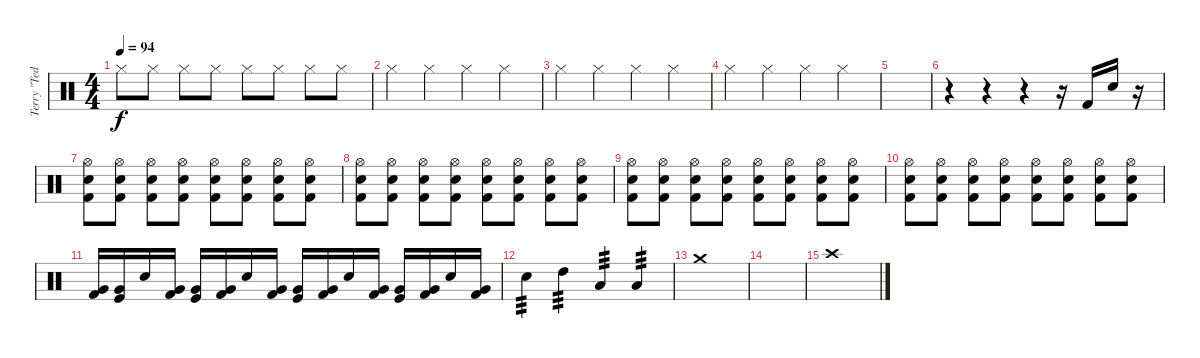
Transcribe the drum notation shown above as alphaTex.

\track ("Terry \"Ted\" Bozzio" "Terry \"Ted") {instrument percussion}
\staff {score}
\articulation defaults
\ts (4 4)
\tempo 94
\clef neutral
\ks c "Hi-Hat (closed)".8{dy f} "Hi-Hat (closed)".8 "Hi-Hat (closed)".8 "Hi-Hat (closed)".8 "Hi-Hat (closed)".8 "Hi-Hat (closed)".8 "Hi-Hat (closed)".8 "Hi-Hat (closed)".8
|
"Hi-Hat (closed)".4 "Hi-Hat (closed)".4 "Hi-Hat (closed)".4 "Hi-Hat (closed)".4 |
"Hi-Hat (closed)".4 "Hi-Hat (closed)".4 "Hi-Hat (closed)".4 "Hi-Hat (closed)".4 |
"Hi-Hat (closed)".4 "Hi-Hat (closed)".4 "Hi-Hat (closed)".4 "Hi-Hat (closed)".4 |
|
r.4 r.4 r.4 r.16 "Kick (hit) 2".16 "Electric Snare (hit)".16 r.16 |
("Hi-Hat (open)" "Electric Snare (hit)" "Kick (hit) 2").8 ("Hi-Hat (open)" "Electric Snare (hit)" "Kick (hit) 2").8 ("Hi-Hat (open)" "Electric Snare (hit)" "Kick (hit) 2").8 ("Hi-Hat (open)" "Electric Snare (hit)" "Kick (hit) 2").8 ("Hi-Hat (open)" "Electric Snare (hit)" "Kick (hit) 2").8 ("Hi-Hat (open)" "Electric Snare (hit)" "Kick (hit) 2").8 ("Hi-Hat (open)" "Electric Snare (hit)" "Kick (hit) 2").8 ("Hi-Hat (open)" "Electric Snare (hit)" "Kick (hit) 2").8 |
("Hi-Hat (open)" "Electric Snare (hit)" "Kick (hit) 2").8 ("Hi-Hat (open)" "Electric Snare (hit)" "Kick (hit) 2").8 ("Hi-Hat (open)" "Electric Snare (hit)" "Kick (hit) 2").8 ("Hi-Hat (open)" "Electric Snare (hit)" "Kick (hit) 2").8 ("Hi-Hat (open)" "Electric Snare (hit)" "Kick (hit) 2").8 ("Hi-Hat (open)" "Electric Snare (hit)" "Kick (hit) 2").8 ("Hi-Hat (open)" "Electric Snare (hit)" "Kick (hit) 2").8 ("Hi-Hat (open)" "Electric Snare (hit)" "Kick (hit) 2").8 |
("Hi-Hat (open)" "Electric Snare (hit)" "Kick (hit) 2").8 ("Hi-Hat (open)" "Electric Snare (hit)" "Kick (hit) 2").8 ("Hi-Hat (open)" "Electric Snare (hit)" "Kick (hit) 2").8 ("Hi-Hat (open)" "Electric Snare (hit)" "Kick (hit) 2").8 ("Hi-Hat (open)" "Electric Snare (hit)" "Kick (hit) 2").8 ("Hi-Hat (open)" "Electric Snare (hit)" "Kick (hit) 2").8 ("Hi-Hat (open)" "Electric Snare (hit)" "Kick (hit) 2").8 ("Hi-Hat (open)" "Electric Snare (hit)" "Kick (hit) 2").8 |
("Hi-Hat (open)" "Electric Snare (hit)" "Kick (hit) 2").8 ("Hi-Hat (open)" "Electric Snare (hit)" "Kick (hit) 2").8 ("Hi-Hat (open)" "Electric Snare (hit)" "Kick (hit) 2").8 ("Hi-Hat (open)" "Electric Snare (hit)" "Kick (hit) 2").8 ("Hi-Hat (open)" "Electric Snare (hit)" "Kick (hit) 2").8 ("Hi-Hat (open)" "Electric Snare (hit)" "Kick (hit) 2").8 ("Hi-Hat (open)" "Electric Snare (hit)" "Kick (hit) 2").8 ("Hi-Hat (open)" "Electric Snare (hit)" "Kick (hit) 2").8 |
("Very Low Tom (hit)" "Kick (hit) 2").16 ("Very Low Tom (hit)" "Kick (hit)").16 "Electric Snare (hit)".16 ("Very Low Tom (hit)" "Kick (hit) 2").16 ("Very Low Tom (hit)" "Kick (hit)").16 ("Very Low Tom (hit)" "Kick (hit) 2").16 "Electric Snare (hit)".16 ("Very Low Tom (hit)" "Kick (hit) 2").16 ("Very Low Tom (hit)" "Kick (hit)").16 ("Very Low Tom (hit)" "Kick (hit) 2").16 "Electric Snare (hit)".16 ("Very Low Tom (hit)" "Kick (hit) 2").16 ("Very Low Tom (hit)" "Kick (hit)").16 ("Very Low Tom (hit)" "Kick (hit) 2").16 "Electric Snare (hit)".16 ("Very Low Tom (hit)" "Kick (hit) 2").16 |
"Electric Snare (hit)".4{tp 3} "High Tom (hit)".4{tp 3} "Low Tom (hit)".4{tp 3} "Low Floor Tom (hit)".4{tp 3} |
"Crash medium (hit)".1 |
|
"Crash high (hit)".1
